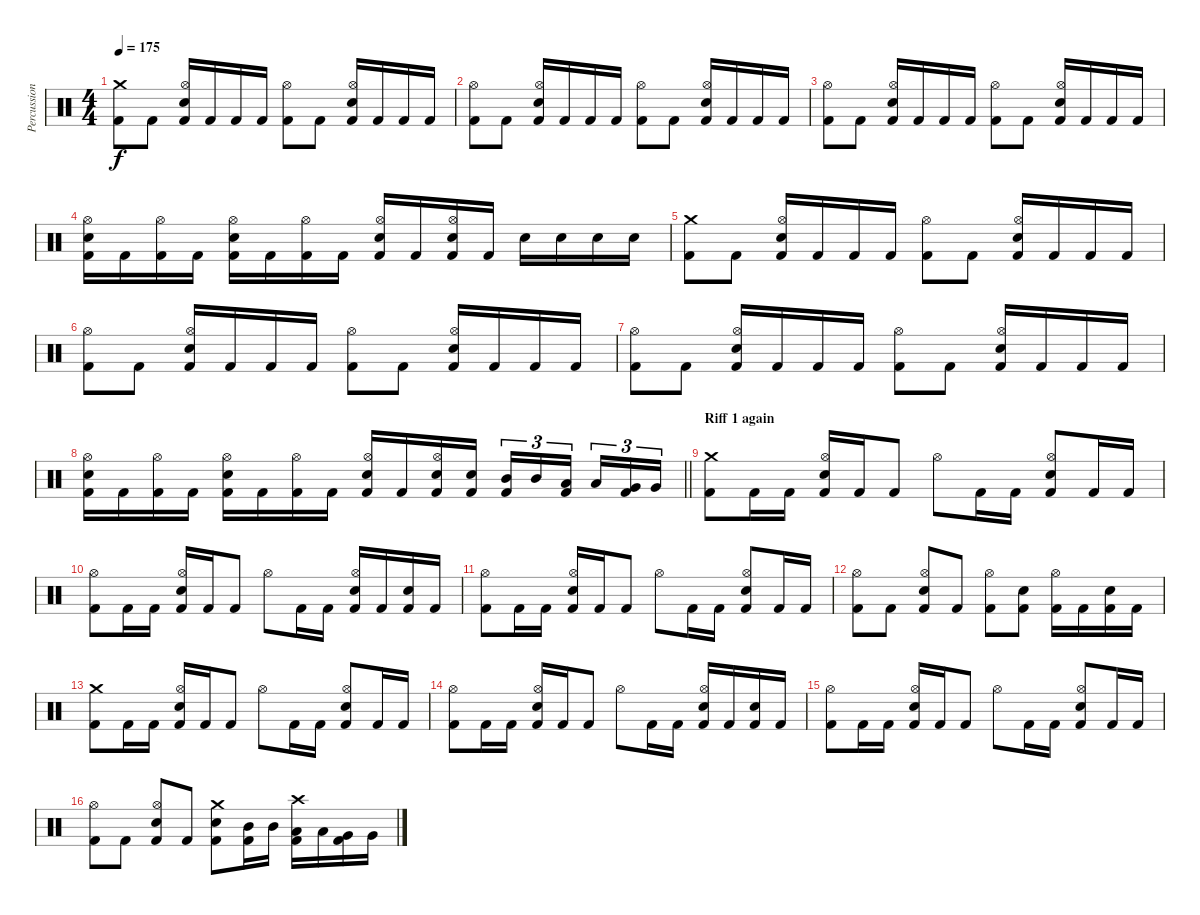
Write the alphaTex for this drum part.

\track ("Percussion" "Percussion") {instrument percussion}
\staff {score}
\articulation defaults
\ts (4 4)
\tempo 175
\clef neutral
\ks c
("Crash medium (hit)" "Kick (hit) 2").8{dy f} "Kick (hit) 2".8 ("Kick (hit) 2" "Hi-Hat (open)" "Snare (hit) 2").16 "Kick (hit) 2".16 "Kick (hit) 2".16 "Kick (hit) 2".16 ("Hi-Hat (open)" "Kick (hit) 2").8 "Kick (hit) 2".8 ("Kick (hit) 2" "Hi-Hat (open)" "Snare (hit) 2").16 "Kick (hit) 2".16 "Kick (hit) 2".16 "Kick (hit) 2".16 |
("Hi-Hat (open)" "Kick (hit) 2").8 "Kick (hit) 2".8 ("Kick (hit) 2" "Hi-Hat (open)" "Snare (hit) 2").16 "Kick (hit) 2".16 "Kick (hit) 2".16 "Kick (hit) 2".16 ("Hi-Hat (open)" "Kick (hit) 2").8 "Kick (hit) 2".8 ("Kick (hit) 2" "Hi-Hat (open)" "Snare (hit) 2").16 "Kick (hit) 2".16 "Kick (hit) 2".16 "Kick (hit) 2".16 |
("Hi-Hat (open)" "Kick (hit) 2").8 "Kick (hit) 2".8 ("Kick (hit) 2" "Hi-Hat (open)" "Snare (hit) 2").16 "Kick (hit) 2".16 "Kick (hit) 2".16 "Kick (hit) 2".16 ("Hi-Hat (open)" "Kick (hit) 2").8 "Kick (hit) 2".8 ("Kick (hit) 2" "Hi-Hat (open)" "Snare (hit) 2").16 "Kick (hit) 2".16 "Kick (hit) 2".16 "Kick (hit) 2".16 |
("Kick (hit) 2" "Hi-Hat (open)" "Snare (hit) 2").16 "Kick (hit) 2".16 ("Hi-Hat (open)" "Kick (hit) 2").16 "Kick (hit) 2".16 ("Kick (hit) 2" "Hi-Hat (open)" "Snare (hit) 2").16 "Kick (hit) 2".16 ("Hi-Hat (open)" "Kick (hit) 2").16 "Kick (hit) 2".16 ("Kick (hit) 2" "Hi-Hat (open)" "Snare (hit) 2").16 "Kick (hit) 2".16 ("Kick (hit) 2" "Hi-Hat (open)" "Snare (hit) 2").16 "Kick (hit) 2".16 "Snare (hit) 2".16 "Snare (hit) 2".16 "Snare (hit) 2".16 "Snare (hit) 2".16 |
("Crash medium (hit)" "Kick (hit) 2").8 "Kick (hit) 2".8 ("Kick (hit) 2" "Hi-Hat (open)" "Snare (hit) 2").16 "Kick (hit) 2".16 "Kick (hit) 2".16 "Kick (hit) 2".16 ("Hi-Hat (open)" "Kick (hit) 2").8 "Kick (hit) 2".8 ("Kick (hit) 2" "Hi-Hat (open)" "Snare (hit) 2").16 "Kick (hit) 2".16 "Kick (hit) 2".16 "Kick (hit) 2".16 |
("Hi-Hat (open)" "Kick (hit) 2").8 "Kick (hit) 2".8 ("Kick (hit) 2" "Hi-Hat (open)" "Snare (hit) 2").16 "Kick (hit) 2".16 "Kick (hit) 2".16 "Kick (hit) 2".16 ("Hi-Hat (open)" "Kick (hit) 2").8 "Kick (hit) 2".8 ("Kick (hit) 2" "Hi-Hat (open)" "Snare (hit) 2").16 "Kick (hit) 2".16 "Kick (hit) 2".16 "Kick (hit) 2".16 |
("Hi-Hat (open)" "Kick (hit) 2").8 "Kick (hit) 2".8 ("Kick (hit) 2" "Hi-Hat (open)" "Snare (hit) 2").16 "Kick (hit) 2".16 "Kick (hit) 2".16 "Kick (hit) 2".16 ("Hi-Hat (open)" "Kick (hit) 2").8 "Kick (hit) 2".8 ("Kick (hit) 2" "Hi-Hat (open)" "Snare (hit) 2").16 "Kick (hit) 2".16 "Kick (hit) 2".16 "Kick (hit) 2".16 |
\barLineRight lightlight
("Kick (hit) 2" "Hi-Hat (open)" "Snare (hit) 2").16 "Kick (hit) 2".16 ("Hi-Hat (open)" "Kick (hit) 2").16 "Kick (hit) 2".16 ("Kick (hit) 2" "Hi-Hat (open)" "Snare (hit) 2").16 "Kick (hit) 2".16 ("Hi-Hat (open)" "Kick (hit) 2").16 "Kick (hit) 2".16 ("Kick (hit) 2" "Hi-Hat (open)" "Snare (hit) 2").16 "Kick (hit) 2".16 ("Kick (hit) 2" "Hi-Hat (open)" "Snare (hit) 2").16 ("Kick (hit) 2" "Snare (hit) 2").16 ("Kick (hit) 2" "Mid Tom (hit)").16{tu (3 2)} "Mid Tom (hit)".16{tu (3 2)} ("Kick (hit) 2" "Low Tom (hit)").16{tu (3 2)} "Low Tom (hit)".16{tu (3 2)} ("Kick (hit) 2" "Very Low Tom (hit)").16{tu (3 2)} "Very Low Tom (hit)".16{tu (3 2)} |
\section ("" "Riff 1 again")
("Crash medium (hit)" "Kick (hit) 2").8 "Kick (hit) 2".16 "Kick (hit) 2".16 ("Kick (hit) 2" "Hi-Hat (open)" "Snare (hit) 2").16 "Kick (hit) 2".16 "Kick (hit) 2".8 "Hi-Hat (open)".8 "Kick (hit) 2".16 "Kick (hit) 2".16 ("Kick (hit) 2" "Hi-Hat (open)" "Snare (hit) 2").8 "Kick (hit) 2".16 "Kick (hit) 2".16 |
("Hi-Hat (open)" "Kick (hit) 2").8 "Kick (hit) 2".16 "Kick (hit) 2".16 ("Kick (hit) 2" "Hi-Hat (open)" "Snare (hit) 2").16 "Kick (hit) 2".16 "Kick (hit) 2".8 "Hi-Hat (open)".8 "Kick (hit) 2".16 "Kick (hit) 2".16 ("Kick (hit) 2" "Hi-Hat (open)" "Snare (hit) 2").16 "Kick (hit) 2".16 ("Kick (hit) 2" "Snare (hit) 2").16 "Kick (hit) 2".16 |
("Hi-Hat (open)" "Kick (hit) 2").8 "Kick (hit) 2".16 "Kick (hit) 2".16 ("Kick (hit) 2" "Hi-Hat (open)" "Snare (hit) 2").16 "Kick (hit) 2".16 "Kick (hit) 2".8 "Hi-Hat (open)".8 "Kick (hit) 2".16 "Kick (hit) 2".16 ("Kick (hit) 2" "Hi-Hat (open)" "Snare (hit) 2").8 "Kick (hit) 2".16 "Kick (hit) 2".16 |
("Hi-Hat (open)" "Kick (hit) 2").8 "Kick (hit) 2".8 ("Kick (hit) 2" "Hi-Hat (open)" "Snare (hit) 2").8 "Kick (hit) 2".8 ("Hi-Hat (open)" "Kick (hit) 2").8 ("Kick (hit) 2" "Snare (hit) 2").8 ("Hi-Hat (open)" "Kick (hit) 2").16 "Kick (hit) 2".16 ("Kick (hit) 2" "Snare (hit) 2").16 "Kick (hit) 2".16 |
("Crash medium (hit)" "Kick (hit) 2").8 "Kick (hit) 2".16 "Kick (hit) 2".16 ("Kick (hit) 2" "Hi-Hat (open)" "Snare (hit) 2").16 "Kick (hit) 2".16 "Kick (hit) 2".8 "Hi-Hat (open)".8 "Kick (hit) 2".16 "Kick (hit) 2".16 ("Kick (hit) 2" "Hi-Hat (open)" "Snare (hit) 2").8 "Kick (hit) 2".16 "Kick (hit) 2".16 |
("Hi-Hat (open)" "Kick (hit) 2").8 "Kick (hit) 2".16 "Kick (hit) 2".16 ("Kick (hit) 2" "Hi-Hat (open)" "Snare (hit) 2").16 "Kick (hit) 2".16 "Kick (hit) 2".8 "Hi-Hat (open)".8 "Kick (hit) 2".16 "Kick (hit) 2".16 ("Kick (hit) 2" "Hi-Hat (open)" "Snare (hit) 2").16 "Kick (hit) 2".16 ("Kick (hit) 2" "Snare (hit) 2").16 "Kick (hit) 2".16 |
("Hi-Hat (open)" "Kick (hit) 2").8 "Kick (hit) 2".16 "Kick (hit) 2".16 ("Kick (hit) 2" "Hi-Hat (open)" "Snare (hit) 2").16 "Kick (hit) 2".16 "Kick (hit) 2".8 "Hi-Hat (open)".8 "Kick (hit) 2".16 "Kick (hit) 2".16 ("Kick (hit) 2" "Hi-Hat (open)" "Snare (hit) 2").8 "Kick (hit) 2".16 "Kick (hit) 2".16 |
("Hi-Hat (open)" "Kick (hit) 2").8 "Kick (hit) 2".8 ("Kick (hit) 2" "Hi-Hat (open)" "Snare (hit) 2").8 "Kick (hit) 2".8 ("Kick (hit) 2" "Crash medium (hit)" "Snare (hit) 2").8 ("Kick (hit) 2" "Mid Tom (hit)").16 "Mid Tom (hit)".16 ("Kick (hit) 2" "Crash high (hit)" "Low Tom (hit)").16 "Low Tom (hit)".16 ("Kick (hit) 2" "Very Low Tom (hit)").16 "Very Low Tom (hit)".16
